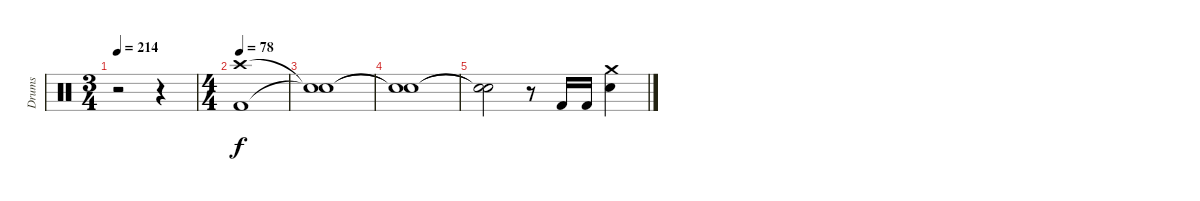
\track ("Drums" "Drums") {instrument percussion}
\staff {score}
\articulation defaults
\ts (3 4)
\tempo 214
\clef neutral
\ks c
r.2{dy f} r.4 |
\ts (4 4)
\tempo 78
("Crash high (hit)" "Kick (hit) 2").1 |
("Snare (hit)"{t} "Snare (hit)"{t}).1 |
("Snare (hit)"{t} "Snare (hit)"{t}).1 |
("Snare (hit)"{t} "Snare (hit)"{t}).2 r.8 "Kick (hit) 2".16 "Kick (hit) 2".16 ("Crash medium (hit)" "Electric Snare (hit)").4
